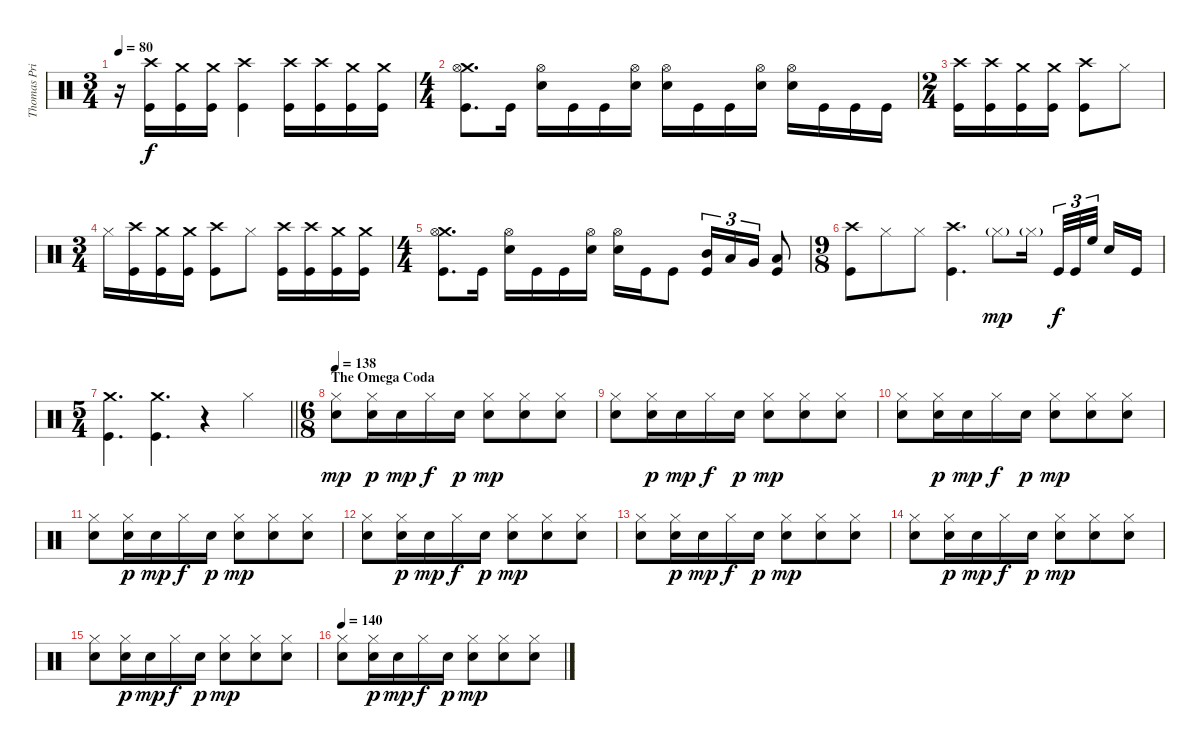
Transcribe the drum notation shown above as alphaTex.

\track ("Thomas Pridgen" "Thomas Pri") {instrument percussion}
\staff {score}
\articulation defaults
\ts (3 4)
\tempo 80
\clef neutral
\ks c
r.16{dy f} ("Crash high (hit)" "Kick (hit)").16 ("Crash medium (hit)" "Kick (hit)").16 ("Crash medium (hit)" "Kick (hit)").16 ("Crash high (hit)" "Kick (hit)").4 ("Crash high (hit)" "Kick (hit)").16 ("Crash high (hit)" "Kick (hit)").16 ("Crash medium (hit)" "Kick (hit)").16 ("Crash medium (hit)" "Kick (hit)").16 |
\ts (4 4)
("Crash medium (hit)" "Hi-Hat (open)" "Kick (hit)").8{d} "Kick (hit)".16 ("Hi-Hat (open)" "Snare (hit) 2").16 "Kick (hit)".16 "Kick (hit)".16 ("Hi-Hat (open)" "Snare (hit) 2").16 ("Hi-Hat (open)" "Snare (hit) 2").16 "Kick (hit)".16 "Kick (hit)".16 ("Hi-Hat (open)" "Snare (hit) 2").16 ("Hi-Hat (open)" "Snare (hit) 2").16 "Kick (hit)".16 "Kick (hit)".16 "Kick (hit)".16 |
\ts (2 4)
("Crash high (hit)" "Kick (hit)").16 ("Crash high (hit)" "Kick (hit)").16 ("Crash medium (hit)" "Kick (hit)").16 ("Crash medium (hit)" "Kick (hit)").16 ("Crash high (hit)" "Kick (hit)").8 "Hi-Hat (closed)".8 |
\ts (3 4)
"Hi-Hat (closed)".16 ("Crash high (hit)" "Kick (hit)").16 ("Crash medium (hit)" "Kick (hit)").16 ("Crash medium (hit)" "Kick (hit)").16 ("Crash high (hit)" "Kick (hit)").8 "Hi-Hat (closed)".8 ("Crash high (hit)" "Kick (hit)").16 ("Crash high (hit)" "Kick (hit)").16 ("Crash medium (hit)" "Kick (hit)").16 ("Crash medium (hit)" "Kick (hit)").16 |
\ts (4 4)
("Crash medium (hit)" "Hi-Hat (open)" "Kick (hit)").8{d} "Kick (hit)".16 ("Hi-Hat (open)" "Snare (hit) 2").16 "Kick (hit)".16 "Kick (hit)".16 ("Hi-Hat (open)" "Snare (hit) 2").16 ("Hi-Hat (open)" "Snare (hit) 2").16 "Kick (hit)".16 "Kick (hit)".8 ("Mid Tom (hit)" "Kick (hit)").16{tu (3 2)} "Low Tom (hit)".16{tu (3 2)} "Very Low Tom (hit)".16{tu (3 2)} ("Low Floor Tom (hit)" "Kick (hit)").8 |
\ts (9 8)
("Crash high (hit)" "Kick (hit)").8 "Hi-Hat (closed)".8 "Hi-Hat (closed)".8 ("Crash high (hit)" "Kick (hit)").4{d} "Hi-Hat (closed)"{g}.8{dy mp} "Hi-Hat (closed)"{g}.16{beam splitsecondary} "Kick (hit)".32{tu (3 2) dy f} "Kick (hit)".32{tu (3 2)} "High Floor Tom (hit)".32{tu (3 2) beam splitsecondary} "Snare (hit) 2".16 "Kick (hit)".16 |
\ts (5 4)
\barLineRight lightlight
("Crash medium (hit)" "Kick (hit)").4{d} ("Crash medium (hit)" "Kick (hit)").4{d} r.4 "Hi-Hat (closed)".4 |
\ts (6 8)
\section ("" "The Omega Coda")
\tempo 138
("Hi-Hat (closed)" "Snare (hit) 2").8{dy mp} ("Hi-Hat (closed)" "Snare (hit) 2").16{dy p} "Snare (hit) 2".16{dy mp} "Hi-Hat (closed)".16{dy f} "Snare (hit) 2".16{dy p} ("Hi-Hat (closed)" "Snare (hit) 2").8{dy mp} ("Hi-Hat (closed)" "Snare (hit) 2").8 ("Hi-Hat (closed)" "Snare (hit) 2").8 |
("Hi-Hat (closed)" "Snare (hit) 2").8 ("Hi-Hat (closed)" "Snare (hit) 2").16{dy p} "Snare (hit) 2".16{dy mp} "Hi-Hat (closed)".16{dy f} "Snare (hit) 2".16{dy p} ("Hi-Hat (closed)" "Snare (hit) 2").8{dy mp} ("Hi-Hat (closed)" "Snare (hit) 2").8 ("Hi-Hat (closed)" "Snare (hit) 2").8 |
("Hi-Hat (closed)" "Snare (hit) 2").8 ("Hi-Hat (closed)" "Snare (hit) 2").16{dy p} "Snare (hit) 2".16{dy mp} "Hi-Hat (closed)".16{dy f} "Snare (hit) 2".16{dy p} ("Hi-Hat (closed)" "Snare (hit) 2").8{dy mp} ("Hi-Hat (closed)" "Snare (hit) 2").8 ("Hi-Hat (closed)" "Snare (hit) 2").8 |
("Hi-Hat (closed)" "Snare (hit) 2").8 ("Hi-Hat (closed)" "Snare (hit) 2").16{dy p} "Snare (hit) 2".16{dy mp} "Hi-Hat (closed)".16{dy f} "Snare (hit) 2".16{dy p} ("Hi-Hat (closed)" "Snare (hit) 2").8{dy mp} ("Hi-Hat (closed)" "Snare (hit) 2").8 ("Hi-Hat (closed)" "Snare (hit) 2").8 |
("Hi-Hat (closed)" "Snare (hit) 2").8 ("Hi-Hat (closed)" "Snare (hit) 2").16{dy p} "Snare (hit) 2".16{dy mp} "Hi-Hat (closed)".16{dy f} "Snare (hit) 2".16{dy p} ("Hi-Hat (closed)" "Snare (hit) 2").8{dy mp} ("Hi-Hat (closed)" "Snare (hit) 2").8 ("Hi-Hat (closed)" "Snare (hit) 2").8 |
("Hi-Hat (closed)" "Snare (hit) 2").8 ("Hi-Hat (closed)" "Snare (hit) 2").16{dy p} "Snare (hit) 2".16{dy mp} "Hi-Hat (closed)".16{dy f} "Snare (hit) 2".16{dy p} ("Hi-Hat (closed)" "Snare (hit) 2").8{dy mp} ("Hi-Hat (closed)" "Snare (hit) 2").8 ("Hi-Hat (closed)" "Snare (hit) 2").8 |
("Hi-Hat (closed)" "Snare (hit) 2").8 ("Hi-Hat (closed)" "Snare (hit) 2").16{dy p} "Snare (hit) 2".16{dy mp} "Hi-Hat (closed)".16{dy f} "Snare (hit) 2".16{dy p} ("Hi-Hat (closed)" "Snare (hit) 2").8{dy mp} ("Hi-Hat (closed)" "Snare (hit) 2").8 ("Hi-Hat (closed)" "Snare (hit) 2").8 |
("Hi-Hat (closed)" "Snare (hit) 2").8 ("Hi-Hat (closed)" "Snare (hit) 2").16{dy p} "Snare (hit) 2".16{dy mp} "Hi-Hat (closed)".16{dy f} "Snare (hit) 2".16{dy p} ("Hi-Hat (closed)" "Snare (hit) 2").8{dy mp} ("Hi-Hat (closed)" "Snare (hit) 2").8 ("Hi-Hat (closed)" "Snare (hit) 2").8 |
\tempo 140
("Hi-Hat (closed)" "Snare (hit) 2").8 ("Hi-Hat (closed)" "Snare (hit) 2").16{dy p} "Snare (hit) 2".16{dy mp} "Hi-Hat (closed)".16{dy f} "Snare (hit) 2".16{dy p} ("Hi-Hat (closed)" "Snare (hit) 2").8{dy mp} ("Hi-Hat (closed)" "Snare (hit) 2").8 ("Hi-Hat (closed)" "Snare (hit) 2").8
